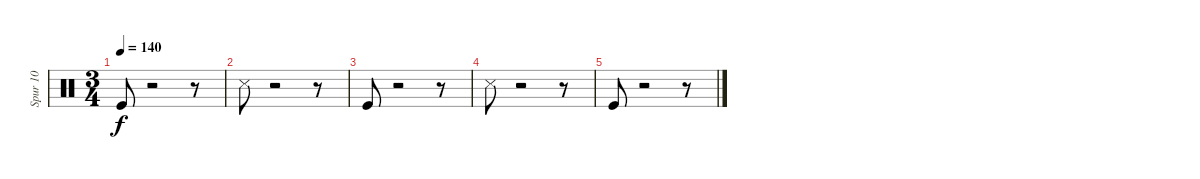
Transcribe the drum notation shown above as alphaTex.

\track ("Spur 10" "Spur 10") {instrument percussion}
\staff {score}
\articulation defaults
\ts (3 4)
\tempo 140
\clef neutral
\ks c "Kick (hit)".8{dy f}
r.2 r.8 |
"Snare (side stick) 3".8 r.2 r.8 |
"Kick (hit)".8 r.2 r.8 |
"Snare (side stick) 3".8 r.2 r.8 |
"Kick (hit)".8 r.2 r.8
